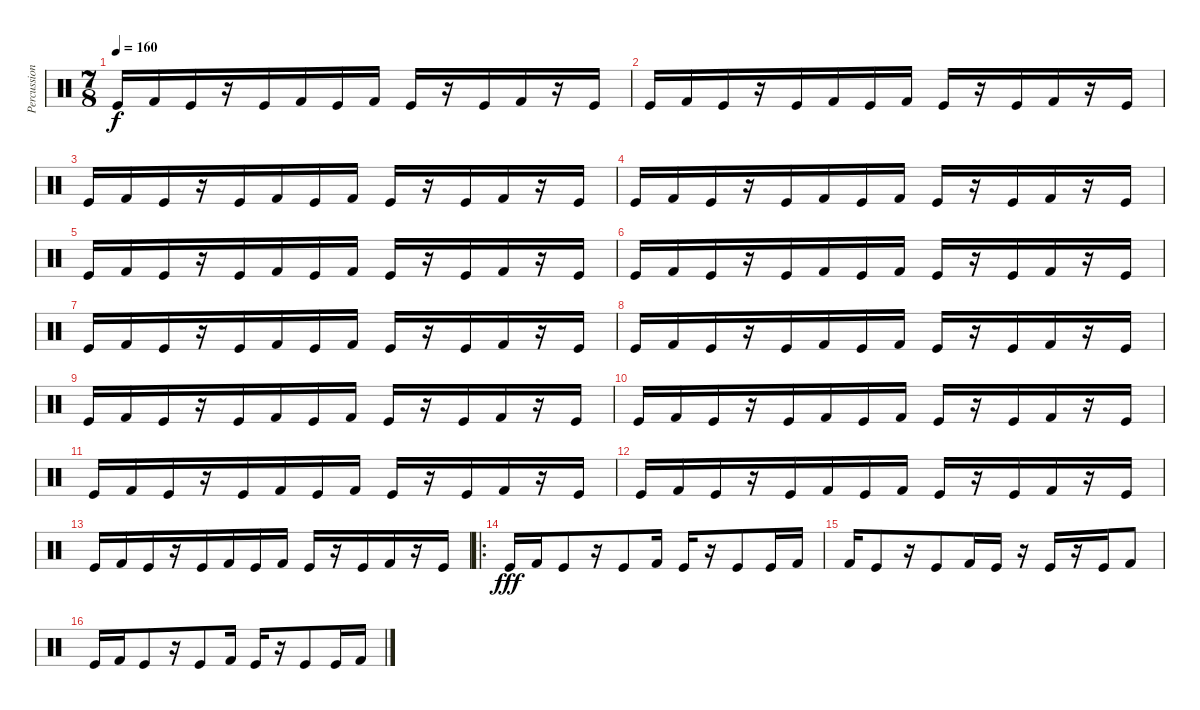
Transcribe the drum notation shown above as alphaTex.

\track ("Percussion" "Percussion") {instrument percussion}
\staff {score}
\articulation defaults
\ts (7 8)
\tempo 160
\clef neutral
\ks c "Kick (hit)".16{dy f} "Kick (hit) 2".16 "Kick (hit)".16
r.16 "Kick (hit)".16 "Kick (hit) 2".16 "Kick (hit)".16 "Kick (hit) 2".16 "Kick (hit)".16 r.16 "Kick (hit)".16 "Kick (hit) 2".16 r.16 "Kick (hit)".16 |
"Kick (hit)".16 "Kick (hit) 2".16 "Kick (hit)".16 r.16 "Kick (hit)".16 "Kick (hit) 2".16 "Kick (hit)".16 "Kick (hit) 2".16 "Kick (hit)".16 r.16 "Kick (hit)".16 "Kick (hit) 2".16 r.16 "Kick (hit)".16 |
"Kick (hit)".16 "Kick (hit) 2".16 "Kick (hit)".16 r.16 "Kick (hit)".16 "Kick (hit) 2".16 "Kick (hit)".16 "Kick (hit) 2".16 "Kick (hit)".16 r.16 "Kick (hit)".16 "Kick (hit) 2".16 r.16 "Kick (hit)".16 |
"Kick (hit)".16 "Kick (hit) 2".16 "Kick (hit)".16 r.16 "Kick (hit)".16 "Kick (hit) 2".16 "Kick (hit)".16 "Kick (hit) 2".16 "Kick (hit)".16 r.16 "Kick (hit)".16 "Kick (hit) 2".16 r.16 "Kick (hit)".16 |
"Kick (hit)".16 "Kick (hit) 2".16 "Kick (hit)".16 r.16 "Kick (hit)".16 "Kick (hit) 2".16 "Kick (hit)".16 "Kick (hit) 2".16 "Kick (hit)".16 r.16 "Kick (hit)".16 "Kick (hit) 2".16 r.16 "Kick (hit)".16 |
"Kick (hit)".16 "Kick (hit) 2".16 "Kick (hit)".16 r.16 "Kick (hit)".16 "Kick (hit) 2".16 "Kick (hit)".16 "Kick (hit) 2".16 "Kick (hit)".16 r.16 "Kick (hit)".16 "Kick (hit) 2".16 r.16 "Kick (hit)".16 |
"Kick (hit)".16 "Kick (hit) 2".16 "Kick (hit)".16 r.16 "Kick (hit)".16 "Kick (hit) 2".16 "Kick (hit)".16 "Kick (hit) 2".16 "Kick (hit)".16 r.16 "Kick (hit)".16 "Kick (hit) 2".16 r.16 "Kick (hit)".16 |
"Kick (hit)".16 "Kick (hit) 2".16 "Kick (hit)".16 r.16 "Kick (hit)".16 "Kick (hit) 2".16 "Kick (hit)".16 "Kick (hit) 2".16 "Kick (hit)".16 r.16 "Kick (hit)".16 "Kick (hit) 2".16 r.16 "Kick (hit)".16 |
"Kick (hit)".16 "Kick (hit) 2".16 "Kick (hit)".16 r.16 "Kick (hit)".16 "Kick (hit) 2".16 "Kick (hit)".16 "Kick (hit) 2".16 "Kick (hit)".16 r.16 "Kick (hit)".16 "Kick (hit) 2".16 r.16 "Kick (hit)".16 |
"Kick (hit)".16 "Kick (hit) 2".16 "Kick (hit)".16 r.16 "Kick (hit)".16 "Kick (hit) 2".16 "Kick (hit)".16 "Kick (hit) 2".16 "Kick (hit)".16 r.16 "Kick (hit)".16 "Kick (hit) 2".16 r.16 "Kick (hit)".16 |
"Kick (hit)".16 "Kick (hit) 2".16 "Kick (hit)".16 r.16 "Kick (hit)".16 "Kick (hit) 2".16 "Kick (hit)".16 "Kick (hit) 2".16 "Kick (hit)".16 r.16 "Kick (hit)".16 "Kick (hit) 2".16 r.16 "Kick (hit)".16 |
"Kick (hit)".16 "Kick (hit) 2".16 "Kick (hit)".16 r.16 "Kick (hit)".16 "Kick (hit) 2".16 "Kick (hit)".16 "Kick (hit) 2".16 "Kick (hit)".16 r.16 "Kick (hit)".16 "Kick (hit) 2".16 r.16 "Kick (hit)".16 |
"Kick (hit)".16 "Kick (hit) 2".16 "Kick (hit)".16 r.16 "Kick (hit)".16 "Kick (hit) 2".16 "Kick (hit)".16 "Kick (hit) 2".16 "Kick (hit)".16 r.16 "Kick (hit)".16 "Kick (hit) 2".16 r.16 "Kick (hit)".16 |
\ro "Kick (hit)".16{dy fff} "Kick (hit) 2".16 "Kick (hit)".8
r.16 "Kick (hit)".8 "Kick (hit) 2".16 "Kick (hit)".16 r.16 "Kick (hit)".8 "Kick (hit)".16 "Kick (hit) 2".16 |
"Kick (hit) 2".16 "Kick (hit)".8 r.16 "Kick (hit)".8 "Kick (hit) 2".16 "Kick (hit)".16 r.16 "Kick (hit)".16 r.16 "Kick (hit)".16 "Kick (hit) 2".8 |
"Kick (hit)".16 "Kick (hit) 2".16 "Kick (hit)".8 r.16 "Kick (hit)".8 "Kick (hit) 2".16 "Kick (hit)".16 r.16 "Kick (hit)".8 "Kick (hit)".16 "Kick (hit) 2".16
